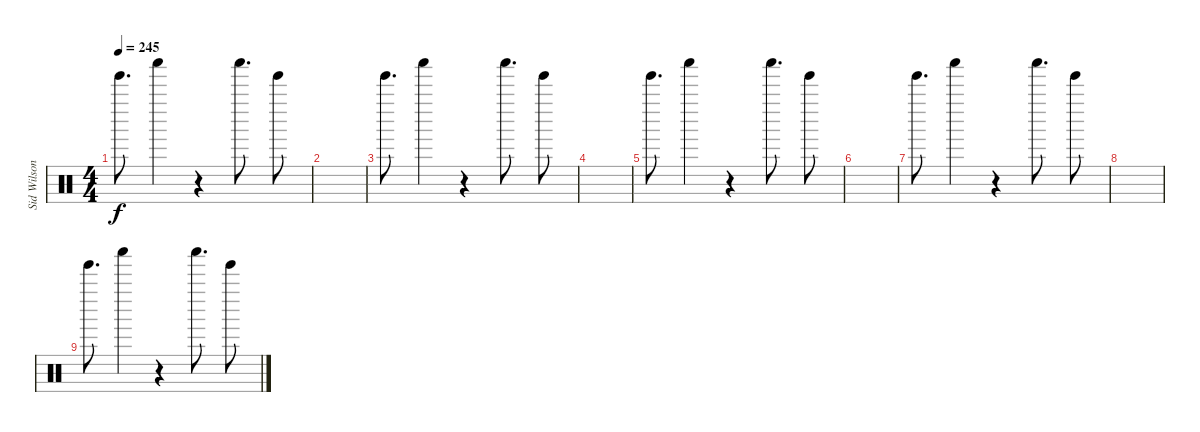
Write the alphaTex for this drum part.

\track ("Sid Wilson" "Sid Wilson") {instrument percussion}
\staff {score}
\articulation defaults
\ts (4 4)
\tempo 245
\clef neutral
\ks c "Tinkle Bell (hit)".8{d dy f} "Shaker (hit)".4
r.4 "Shaker (hit)".8{d} "Tinkle Bell (hit)".8 |
|
"Tinkle Bell (hit)".8{d} "Shaker (hit)".4 r.4 "Shaker (hit)".8{d} "Tinkle Bell (hit)".8 |
|
"Tinkle Bell (hit)".8{d} "Shaker (hit)".4 r.4 "Shaker (hit)".8{d} "Tinkle Bell (hit)".8 |
|
"Tinkle Bell (hit)".8{d} "Shaker (hit)".4 r.4 "Shaker (hit)".8{d} "Tinkle Bell (hit)".8 |
|
"Tinkle Bell (hit)".8{d} "Shaker (hit)".4 r.4 "Shaker (hit)".8{d} "Tinkle Bell (hit)".8
